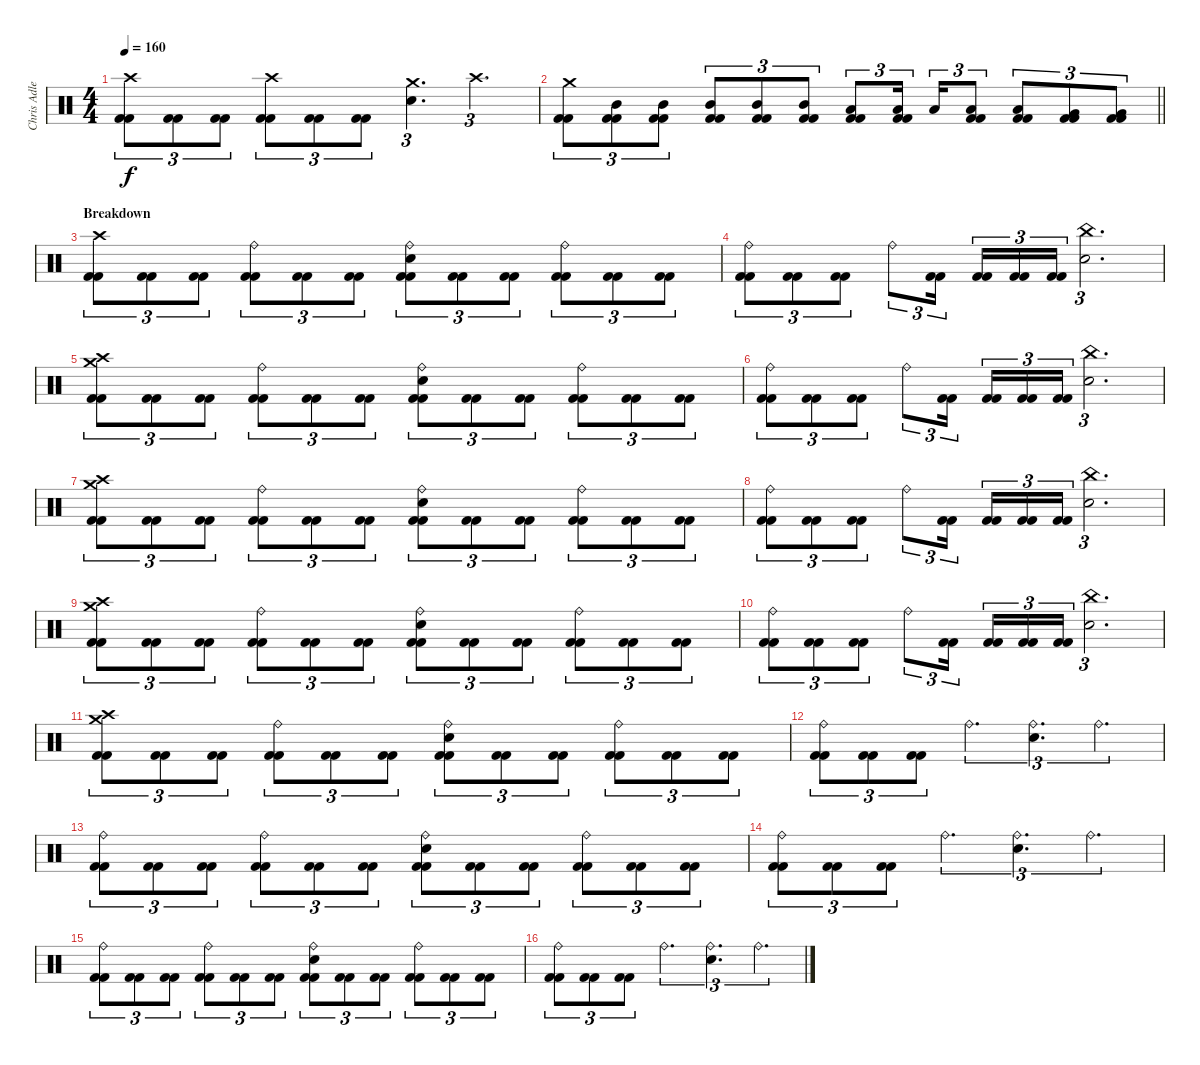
\track ("Chris Adler" "Chris Adle") {instrument percussion}
\staff {score}
\articulation defaults
\ts (4 4)
\tempo 160
\clef neutral
\ks c
("Crash high (hit)" "Kick (hit) 2" "Kick (hit) 2").8{tu (3 2) dy f} ("Kick (hit) 2" "Kick (hit) 2").8{tu (3 2)} ("Kick (hit) 2" "Kick (hit) 2").8{tu (3 2)} ("Crash high (hit)" "Kick (hit) 2" "Kick (hit) 2").8{tu (3 2)} ("Kick (hit) 2" "Kick (hit) 2").8{tu (3 2)} ("Kick (hit) 2" "Kick (hit) 2").8{tu (3 2)} ("Crash medium (hit)" "Electric Snare (hit)").4{d tu (3 2)} "Crash high (hit)".4{d tu (3 2)} |
\barLineRight lightlight
("Crash medium (hit)" "Kick (hit) 2" "Kick (hit) 2").8{tu (3 2)} ("Mid Tom (hit)" "Kick (hit) 2" "Kick (hit) 2").8{tu (3 2)} ("Mid Tom (hit)" "Kick (hit) 2" "Kick (hit) 2").8{tu (3 2)} ("Mid Tom (hit)" "Kick (hit) 2" "Kick (hit) 2").8{tu (3 2)} ("Mid Tom (hit)" "Kick (hit) 2" "Kick (hit) 2").8{tu (3 2)} ("Mid Tom (hit)" "Kick (hit) 2" "Kick (hit) 2").8{tu (3 2)} ("Low Tom (hit)" "Kick (hit) 2" "Kick (hit) 2").8{tu (3 2)} ("Low Tom (hit)" "Kick (hit) 2" "Kick (hit) 2").16{tu (3 2) beam splitsecondary} "Low Tom (hit)".16{tu (3 2)} ("Low Tom (hit)" "Kick (hit) 2" "Kick (hit) 2").8{tu (3 2)} ("Low Tom (hit)" "Kick (hit) 2" "Kick (hit) 2").8{tu (3 2)} ("Very Low Tom (hit)" "Kick (hit) 2" "Kick (hit) 2").8{tu (3 2)} ("Very Low Tom (hit)" "Kick (hit) 2" "Kick (hit) 2").8{tu (3 2)} |
\section ("" "Breakdown")
("Crash high (hit)" "Kick (hit) 2" "Kick (hit) 2").8{tu (3 2)} ("Kick (hit) 2" "Kick (hit) 2").8{tu (3 2)} ("Kick (hit) 2" "Kick (hit) 2").8{tu (3 2)} ("Ride (bell)" "Kick (hit) 2" "Kick (hit) 2").8{tu (3 2)} ("Kick (hit) 2" "Kick (hit) 2").8{tu (3 2)} ("Kick (hit) 2" "Kick (hit) 2").8{tu (3 2)} ("Ride (bell)" "Electric Snare (hit)" "Kick (hit) 2" "Kick (hit) 2").8{tu (3 2)} ("Kick (hit) 2" "Kick (hit) 2").8{tu (3 2)} ("Kick (hit) 2" "Kick (hit) 2").8{tu (3 2)} ("Ride (bell)" "Kick (hit) 2" "Kick (hit) 2").8{tu (3 2)} ("Kick (hit) 2" "Kick (hit) 2").8{tu (3 2)} ("Kick (hit) 2" "Kick (hit) 2").8{tu (3 2)} |
("Ride (bell)" "Kick (hit) 2" "Kick (hit) 2").8{tu (3 2)} ("Kick (hit) 2" "Kick (hit) 2").8{tu (3 2)} ("Kick (hit) 2" "Kick (hit) 2").8{tu (3 2)} "Ride (bell)".8{tu (3 2)} ("Kick (hit) 2" "Kick (hit) 2").16{tu (3 2) beam splitsecondary} ("Kick (hit) 2" "Kick (hit) 2").16{tu (3 2)} ("Kick (hit) 2" "Kick (hit) 2").16{tu (3 2)} ("Kick (hit) 2" "Kick (hit) 2").16{tu (3 2)} ("China (hit)" "Electric Snare (hit)").2{d tu (3 2)} |
("Crash medium (hit)" "Crash high (hit)" "Kick (hit) 2" "Kick (hit) 2").8{tu (3 2)} ("Kick (hit) 2" "Kick (hit) 2").8{tu (3 2)} ("Kick (hit) 2" "Kick (hit) 2").8{tu (3 2)} ("Ride (bell)" "Kick (hit) 2" "Kick (hit) 2").8{tu (3 2)} ("Kick (hit) 2" "Kick (hit) 2").8{tu (3 2)} ("Kick (hit) 2" "Kick (hit) 2").8{tu (3 2)} ("Ride (bell)" "Electric Snare (hit)" "Kick (hit) 2" "Kick (hit) 2").8{tu (3 2)} ("Kick (hit) 2" "Kick (hit) 2").8{tu (3 2)} ("Kick (hit) 2" "Kick (hit) 2").8{tu (3 2)} ("Ride (bell)" "Kick (hit) 2" "Kick (hit) 2").8{tu (3 2)} ("Kick (hit) 2" "Kick (hit) 2").8{tu (3 2)} ("Kick (hit) 2" "Kick (hit) 2").8{tu (3 2)} |
("Ride (bell)" "Kick (hit) 2" "Kick (hit) 2").8{tu (3 2)} ("Kick (hit) 2" "Kick (hit) 2").8{tu (3 2)} ("Kick (hit) 2" "Kick (hit) 2").8{tu (3 2)} "Ride (bell)".8{tu (3 2)} ("Kick (hit) 2" "Kick (hit) 2").16{tu (3 2) beam splitsecondary} ("Kick (hit) 2" "Kick (hit) 2").16{tu (3 2)} ("Kick (hit) 2" "Kick (hit) 2").16{tu (3 2)} ("Kick (hit) 2" "Kick (hit) 2").16{tu (3 2)} ("China (hit)" "Electric Snare (hit)").2{d tu (3 2)} |
("Crash medium (hit)" "Crash high (hit)" "Kick (hit) 2" "Kick (hit) 2").8{tu (3 2)} ("Kick (hit) 2" "Kick (hit) 2").8{tu (3 2)} ("Kick (hit) 2" "Kick (hit) 2").8{tu (3 2)} ("Ride (bell)" "Kick (hit) 2" "Kick (hit) 2").8{tu (3 2)} ("Kick (hit) 2" "Kick (hit) 2").8{tu (3 2)} ("Kick (hit) 2" "Kick (hit) 2").8{tu (3 2)} ("Ride (bell)" "Electric Snare (hit)" "Kick (hit) 2" "Kick (hit) 2").8{tu (3 2)} ("Kick (hit) 2" "Kick (hit) 2").8{tu (3 2)} ("Kick (hit) 2" "Kick (hit) 2").8{tu (3 2)} ("Ride (bell)" "Kick (hit) 2" "Kick (hit) 2").8{tu (3 2)} ("Kick (hit) 2" "Kick (hit) 2").8{tu (3 2)} ("Kick (hit) 2" "Kick (hit) 2").8{tu (3 2)} |
("Ride (bell)" "Kick (hit) 2" "Kick (hit) 2").8{tu (3 2)} ("Kick (hit) 2" "Kick (hit) 2").8{tu (3 2)} ("Kick (hit) 2" "Kick (hit) 2").8{tu (3 2)} "Ride (bell)".8{tu (3 2)} ("Kick (hit) 2" "Kick (hit) 2").16{tu (3 2) beam splitsecondary} ("Kick (hit) 2" "Kick (hit) 2").16{tu (3 2)} ("Kick (hit) 2" "Kick (hit) 2").16{tu (3 2)} ("Kick (hit) 2" "Kick (hit) 2").16{tu (3 2)} ("China (hit)" "Electric Snare (hit)").2{d tu (3 2)} |
("Crash medium (hit)" "Crash high (hit)" "Kick (hit) 2" "Kick (hit) 2").8{tu (3 2)} ("Kick (hit) 2" "Kick (hit) 2").8{tu (3 2)} ("Kick (hit) 2" "Kick (hit) 2").8{tu (3 2)} ("Ride (bell)" "Kick (hit) 2" "Kick (hit) 2").8{tu (3 2)} ("Kick (hit) 2" "Kick (hit) 2").8{tu (3 2)} ("Kick (hit) 2" "Kick (hit) 2").8{tu (3 2)} ("Ride (bell)" "Electric Snare (hit)" "Kick (hit) 2" "Kick (hit) 2").8{tu (3 2)} ("Kick (hit) 2" "Kick (hit) 2").8{tu (3 2)} ("Kick (hit) 2" "Kick (hit) 2").8{tu (3 2)} ("Ride (bell)" "Kick (hit) 2" "Kick (hit) 2").8{tu (3 2)} ("Kick (hit) 2" "Kick (hit) 2").8{tu (3 2)} ("Kick (hit) 2" "Kick (hit) 2").8{tu (3 2)} |
("Ride (bell)" "Kick (hit) 2" "Kick (hit) 2").8{tu (3 2)} ("Kick (hit) 2" "Kick (hit) 2").8{tu (3 2)} ("Kick (hit) 2" "Kick (hit) 2").8{tu (3 2)} "Ride (bell)".8{tu (3 2)} ("Kick (hit) 2" "Kick (hit) 2").16{tu (3 2) beam splitsecondary} ("Kick (hit) 2" "Kick (hit) 2").16{tu (3 2)} ("Kick (hit) 2" "Kick (hit) 2").16{tu (3 2)} ("Kick (hit) 2" "Kick (hit) 2").16{tu (3 2)} ("China (hit)" "Electric Snare (hit)").2{d tu (3 2)} |
("Crash medium (hit)" "Crash high (hit)" "Kick (hit) 2" "Kick (hit) 2").8{tu (3 2)} ("Kick (hit) 2" "Kick (hit) 2").8{tu (3 2)} ("Kick (hit) 2" "Kick (hit) 2").8{tu (3 2)} ("Ride (bell)" "Kick (hit) 2" "Kick (hit) 2").8{tu (3 2)} ("Kick (hit) 2" "Kick (hit) 2").8{tu (3 2)} ("Kick (hit) 2" "Kick (hit) 2").8{tu (3 2)} ("Ride (bell)" "Electric Snare (hit)" "Kick (hit) 2" "Kick (hit) 2").8{tu (3 2)} ("Kick (hit) 2" "Kick (hit) 2").8{tu (3 2)} ("Kick (hit) 2" "Kick (hit) 2").8{tu (3 2)} ("Ride (bell)" "Kick (hit) 2" "Kick (hit) 2").8{tu (3 2)} ("Kick (hit) 2" "Kick (hit) 2").8{tu (3 2)} ("Kick (hit) 2" "Kick (hit) 2").8{tu (3 2)} |
("Ride (bell)" "Kick (hit) 2" "Kick (hit) 2").8{tu (3 2)} ("Kick (hit) 2" "Kick (hit) 2").8{tu (3 2)} ("Kick (hit) 2" "Kick (hit) 2").8{tu (3 2)} "Ride (bell)".4{d tu (3 2)} ("Ride (bell)" "Electric Snare (hit)").4{d tu (3 2)} "Ride (bell)".4{d tu (3 2)} |
("Ride (bell)" "Kick (hit) 2" "Kick (hit) 2").8{tu (3 2)} ("Kick (hit) 2" "Kick (hit) 2").8{tu (3 2)} ("Kick (hit) 2" "Kick (hit) 2").8{tu (3 2)} ("Ride (bell)" "Kick (hit) 2" "Kick (hit) 2").8{tu (3 2)} ("Kick (hit) 2" "Kick (hit) 2").8{tu (3 2)} ("Kick (hit) 2" "Kick (hit) 2").8{tu (3 2)} ("Ride (bell)" "Electric Snare (hit)" "Kick (hit) 2" "Kick (hit) 2").8{tu (3 2)} ("Kick (hit) 2" "Kick (hit) 2").8{tu (3 2)} ("Kick (hit) 2" "Kick (hit) 2").8{tu (3 2)} ("Ride (bell)" "Kick (hit) 2" "Kick (hit) 2").8{tu (3 2)} ("Kick (hit) 2" "Kick (hit) 2").8{tu (3 2)} ("Kick (hit) 2" "Kick (hit) 2").8{tu (3 2)} |
("Ride (bell)" "Kick (hit) 2" "Kick (hit) 2").8{tu (3 2)} ("Kick (hit) 2" "Kick (hit) 2").8{tu (3 2)} ("Kick (hit) 2" "Kick (hit) 2").8{tu (3 2)} "Ride (bell)".4{d tu (3 2)} ("Ride (bell)" "Electric Snare (hit)").4{d tu (3 2)} "Ride (bell)".4{d tu (3 2)} |
("Ride (bell)" "Kick (hit) 2" "Kick (hit) 2").8{tu (3 2)} ("Kick (hit) 2" "Kick (hit) 2").8{tu (3 2)} ("Kick (hit) 2" "Kick (hit) 2").8{tu (3 2)} ("Ride (bell)" "Kick (hit) 2" "Kick (hit) 2").8{tu (3 2)} ("Kick (hit) 2" "Kick (hit) 2").8{tu (3 2)} ("Kick (hit) 2" "Kick (hit) 2").8{tu (3 2)} ("Ride (bell)" "Electric Snare (hit)" "Kick (hit) 2" "Kick (hit) 2").8{tu (3 2)} ("Kick (hit) 2" "Kick (hit) 2").8{tu (3 2)} ("Kick (hit) 2" "Kick (hit) 2").8{tu (3 2)} ("Ride (bell)" "Kick (hit) 2" "Kick (hit) 2").8{tu (3 2)} ("Kick (hit) 2" "Kick (hit) 2").8{tu (3 2)} ("Kick (hit) 2" "Kick (hit) 2").8{tu (3 2)} |
("Ride (bell)" "Kick (hit) 2" "Kick (hit) 2").8{tu (3 2)} ("Kick (hit) 2" "Kick (hit) 2").8{tu (3 2)} ("Kick (hit) 2" "Kick (hit) 2").8{tu (3 2)} "Ride (bell)".4{d tu (3 2)} ("Ride (bell)" "Electric Snare (hit)").4{d tu (3 2)} "Ride (bell)".4{d tu (3 2)}
